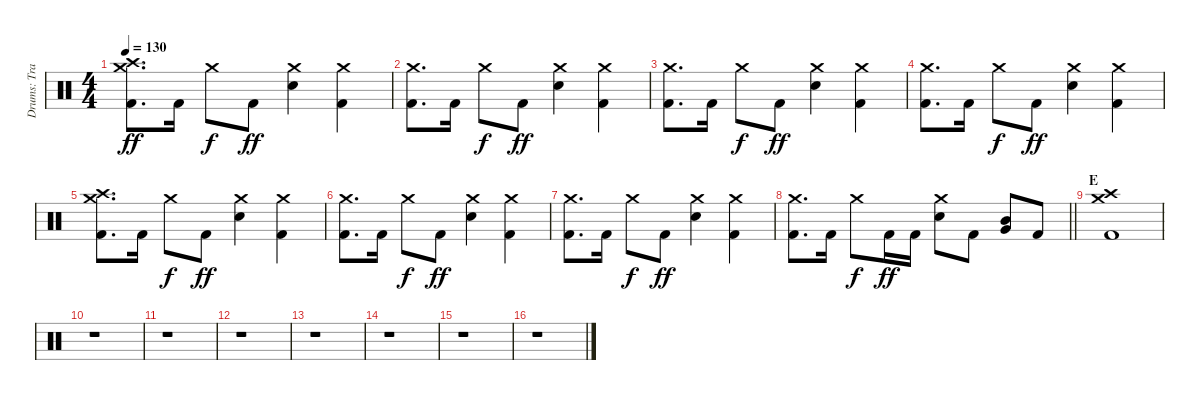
\track ("Drums: Travis Clarke" "Drums: Tra") {instrument percussion}
\staff {score}
\articulation defaults
\ts (4 4)
\tempo 130
\clef neutral
\ks c
("Kick (hit) 2" "Crash high (hit)" "Crash medium (hit)").8{d dy ff} "Kick (hit) 2".16 "Crash medium (hit)".8{dy f} "Kick (hit) 2".8{dy ff} ("Snare (hit) 2" "Crash medium (hit)").4 ("Kick (hit) 2" "Crash medium (hit)").4 |
("Kick (hit) 2" "Crash medium (hit)").8{d} "Kick (hit) 2".16 "Crash medium (hit)".8{dy f} "Kick (hit) 2".8{dy ff} ("Snare (hit) 2" "Crash medium (hit)").4 ("Kick (hit) 2" "Crash medium (hit)").4 |
("Kick (hit) 2" "Crash medium (hit)").8{d} "Kick (hit) 2".16 "Crash medium (hit)".8{dy f} "Kick (hit) 2".8{dy ff} ("Snare (hit) 2" "Crash medium (hit)").4 ("Kick (hit) 2" "Crash medium (hit)").4 |
("Kick (hit) 2" "Crash medium (hit)").8{d} "Kick (hit) 2".16 "Crash medium (hit)".8{dy f} "Kick (hit) 2".8{dy ff} ("Snare (hit) 2" "Crash medium (hit)").4 ("Kick (hit) 2" "Crash medium (hit)").4 |
("Kick (hit) 2" "Crash high (hit)" "Crash medium (hit)").8{d} "Kick (hit) 2".16 "Crash medium (hit)".8{dy f} "Kick (hit) 2".8{dy ff} ("Snare (hit) 2" "Crash medium (hit)").4 ("Kick (hit) 2" "Crash medium (hit)").4 |
("Kick (hit) 2" "Crash medium (hit)").8{d} "Kick (hit) 2".16 "Crash medium (hit)".8{dy f} "Kick (hit) 2".8{dy ff} ("Snare (hit) 2" "Crash medium (hit)").4 ("Kick (hit) 2" "Crash medium (hit)").4 |
("Kick (hit) 2" "Crash medium (hit)").8{d} "Kick (hit) 2".16 "Crash medium (hit)".8{dy f} "Kick (hit) 2".8{dy ff} ("Snare (hit) 2" "Crash medium (hit)").4 ("Kick (hit) 2" "Crash medium (hit)").4 |
\barLineRight lightlight
("Kick (hit) 2" "Crash medium (hit)").8{d} "Kick (hit) 2".16 "Crash medium (hit)".8{dy f} "Kick (hit) 2".16{dy ff} "Kick (hit) 2".16 ("Snare (hit) 2" "Crash medium (hit)").8 "Kick (hit) 2".8 ("Very Low Tom (hit)" "Mid Tom (hit)").8 "Kick (hit) 2".8 |
\section ("" "E")
("Kick (hit) 2" "Crash high (hit)" "Crash medium (hit)").1 |
r.1 |
r.1 |
r.1 |
r.1 |
r.1 |
r.1 |
r.1
